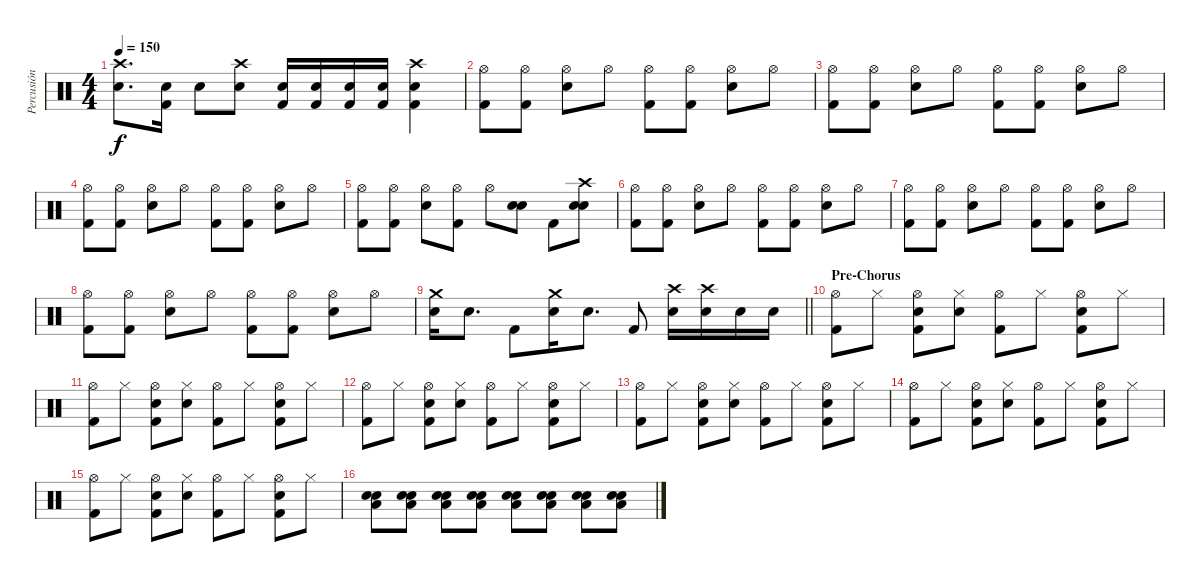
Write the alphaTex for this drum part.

\track ("Percusión" "Percusión") {instrument percussion}
\staff {score}
\articulation defaults
\ts (4 4)
\tempo 150
\clef neutral
\ks c
("Crash high (hit)" "Snare (hit) 2").8{d dy f} ("Snare (hit) 2" "Kick (hit) 2").16 "Snare (hit) 2".8 ("Crash high (hit)" "Snare (hit) 2").8 ("Electric Snare (hit)" "Kick (hit) 2").16 ("Electric Snare (hit)" "Kick (hit) 2").16 ("Electric Snare (hit)" "Kick (hit) 2").16 ("Electric Snare (hit)" "Kick (hit) 2").16 ("Crash high (hit)" "Electric Snare (hit)" "Kick (hit) 2").4 |
("Hi-Hat (open)" "Kick (hit) 2").8 ("Hi-Hat (open)" "Kick (hit) 2").8 ("Hi-Hat (open)" "Snare (hit) 2").8 "Hi-Hat (open)".8 ("Hi-Hat (open)" "Kick (hit) 2").8 ("Hi-Hat (open)" "Kick (hit) 2").8 ("Hi-Hat (open)" "Snare (hit) 2").8 "Hi-Hat (open)".8 |
("Hi-Hat (open)" "Kick (hit) 2").8 ("Hi-Hat (open)" "Kick (hit) 2").8 ("Hi-Hat (open)" "Snare (hit) 2").8 "Hi-Hat (open)".8 ("Hi-Hat (open)" "Kick (hit) 2").8 ("Hi-Hat (open)" "Kick (hit) 2").8 ("Hi-Hat (open)" "Snare (hit) 2").8 "Hi-Hat (open)".8 |
("Hi-Hat (open)" "Kick (hit) 2").8 ("Hi-Hat (open)" "Kick (hit) 2").8 ("Hi-Hat (open)" "Snare (hit) 2").8 "Hi-Hat (open)".8 ("Hi-Hat (open)" "Kick (hit) 2").8 ("Hi-Hat (open)" "Kick (hit) 2").8 ("Hi-Hat (open)" "Snare (hit) 2").8 "Hi-Hat (open)".8 |
("Hi-Hat (open)" "Kick (hit) 2").8 ("Hi-Hat (open)" "Kick (hit) 2").8 ("Hi-Hat (open)" "Snare (hit) 2").8 ("Hi-Hat (open)" "Kick (hit) 2").8 "Hi-Hat (open)".8 ("Electric Snare (hit)" "Snare (hit) 2").8 "Kick (hit) 2".8 ("Crash high (hit)" "Electric Snare (hit)" "Snare (hit) 2").8 |
("Hi-Hat (open)" "Kick (hit) 2").8 ("Hi-Hat (open)" "Kick (hit) 2").8 ("Hi-Hat (open)" "Snare (hit) 2").8 "Hi-Hat (open)".8 ("Hi-Hat (open)" "Kick (hit) 2").8 ("Hi-Hat (open)" "Kick (hit) 2").8 ("Hi-Hat (open)" "Snare (hit) 2").8 "Hi-Hat (open)".8 |
("Hi-Hat (open)" "Kick (hit) 2").8 ("Hi-Hat (open)" "Kick (hit) 2").8 ("Hi-Hat (open)" "Snare (hit) 2").8 "Hi-Hat (open)".8 ("Hi-Hat (open)" "Kick (hit) 2").8 ("Hi-Hat (open)" "Kick (hit) 2").8 ("Hi-Hat (open)" "Snare (hit) 2").8 "Hi-Hat (open)".8 |
("Hi-Hat (open)" "Kick (hit) 2").8 ("Hi-Hat (open)" "Kick (hit) 2").8 ("Hi-Hat (open)" "Snare (hit) 2").8 "Hi-Hat (open)".8 ("Hi-Hat (open)" "Kick (hit) 2").8 ("Hi-Hat (open)" "Kick (hit) 2").8 ("Hi-Hat (open)" "Snare (hit) 2").8 "Hi-Hat (open)".8 |
\barLineRight lightlight
("Crash medium (hit)" "Snare (hit) 2").16 "Snare (hit) 2".8{d} "Kick (hit) 2".8 ("Crash medium (hit)" "Snare (hit) 2").16 "Snare (hit) 2".8{d} "Kick (hit) 2".8 ("Crash high (hit)" "Electric Snare (hit)").16 ("Crash high (hit)" "Electric Snare (hit)").16 "Electric Snare (hit)".16 "Electric Snare (hit)".16 |
\section ("" "Pre-Chorus")
("Hi-Hat (open)" "Kick (hit) 2").8 "Hi-Hat (closed)".8 ("Hi-Hat (open)" "Hand Clap (hit)" "Kick (hit) 2").8 ("Hi-Hat (closed)" "Hand Clap (hit)").8 ("Hi-Hat (open)" "Kick (hit) 2").8 "Hi-Hat (closed)".8 ("Hi-Hat (open)" "Hand Clap (hit)" "Kick (hit) 2").8 "Hi-Hat (closed)".8 |
("Hi-Hat (open)" "Kick (hit) 2").8 "Hi-Hat (closed)".8 ("Hi-Hat (open)" "Hand Clap (hit)" "Kick (hit) 2").8 ("Hi-Hat (closed)" "Hand Clap (hit)").8 ("Hi-Hat (open)" "Kick (hit) 2").8 "Hi-Hat (closed)".8 ("Hi-Hat (open)" "Hand Clap (hit)" "Kick (hit) 2").8 "Hi-Hat (closed)".8 |
("Hi-Hat (open)" "Kick (hit) 2").8 "Hi-Hat (closed)".8 ("Hi-Hat (open)" "Hand Clap (hit)" "Kick (hit) 2").8 ("Hi-Hat (closed)" "Hand Clap (hit)").8 ("Hi-Hat (open)" "Kick (hit) 2").8 "Hi-Hat (closed)".8 ("Hi-Hat (open)" "Hand Clap (hit)" "Kick (hit) 2").8 "Hi-Hat (closed)".8 |
("Hi-Hat (open)" "Kick (hit) 2").8 "Hi-Hat (closed)".8 ("Hi-Hat (open)" "Hand Clap (hit)" "Kick (hit) 2").8 ("Hi-Hat (closed)" "Hand Clap (hit)").8 ("Hi-Hat (open)" "Kick (hit) 2").8 "Hi-Hat (closed)".8 ("Hi-Hat (open)" "Hand Clap (hit)" "Kick (hit) 2").8 "Hi-Hat (closed)".8 |
("Hi-Hat (open)" "Kick (hit) 2").8 "Hi-Hat (closed)".8 ("Hi-Hat (open)" "Hand Clap (hit)" "Kick (hit) 2").8 ("Hi-Hat (closed)" "Hand Clap (hit)").8 ("Hi-Hat (open)" "Kick (hit) 2").8 "Hi-Hat (closed)".8 ("Hi-Hat (open)" "Hand Clap (hit)" "Kick (hit) 2").8 "Hi-Hat (closed)".8 |
("Hi-Hat (open)" "Kick (hit) 2").8 "Hi-Hat (closed)".8 ("Hi-Hat (open)" "Hand Clap (hit)" "Kick (hit) 2").8 ("Hi-Hat (closed)" "Hand Clap (hit)").8 ("Hi-Hat (open)" "Kick (hit) 2").8 "Hi-Hat (closed)".8 ("Hi-Hat (open)" "Hand Clap (hit)" "Kick (hit) 2").8 "Hi-Hat (closed)".8 |
("Snare (hit) 2" "Low Floor Tom (hit)" "Electric Snare (hit)").8 ("Snare (hit) 2" "Low Floor Tom (hit)" "Electric Snare (hit)").8 ("Snare (hit) 2" "Low Floor Tom (hit)" "Electric Snare (hit)").8 ("Snare (hit) 2" "Low Floor Tom (hit)" "Electric Snare (hit)").8 ("Snare (hit) 2" "Low Floor Tom (hit)" "Electric Snare (hit)").8 ("Snare (hit) 2" "Low Floor Tom (hit)" "Electric Snare (hit)").8 ("Snare (hit) 2" "Low Floor Tom (hit)" "Electric Snare (hit)").8 ("Snare (hit) 2" "Low Floor Tom (hit)" "Electric Snare (hit)").8
